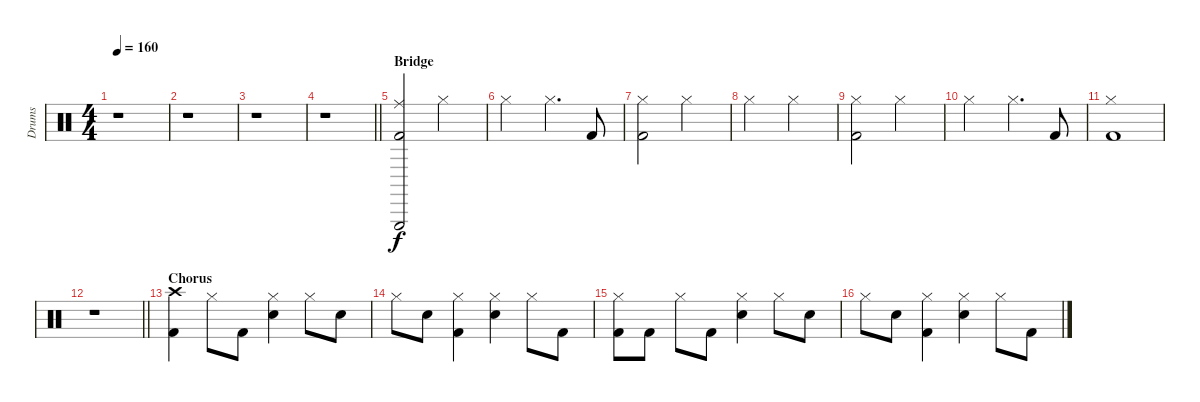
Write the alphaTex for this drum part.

\track ("Drums" "Drums") {instrument percussion}
\staff {score}
\articulation defaults
\ts (4 4)
\tempo 160
\clef neutral
\ks c
r.1{dy f} |
r.1 |
r.1 |
\barLineRight lightlight
r.1 |
\section ("" "Bridge")
("Triangle (hit)" "Ride (middle)" "Kick (hit) 2").2 "Hi-Hat (closed)".2 |
"Hi-Hat (closed)".2 "Hi-Hat (closed)".4{d} "Kick (hit) 2".8 |
("Hi-Hat (closed)" "Kick (hit) 2").2 "Hi-Hat (closed)".2 |
"Hi-Hat (closed)".2 "Hi-Hat (closed)".2 |
("Hi-Hat (closed)" "Kick (hit) 2").2 "Hi-Hat (closed)".2 |
"Hi-Hat (closed)".2 "Hi-Hat (closed)".4{d} "Kick (hit) 2".8 |
("Hi-Hat (closed)" "Kick (hit) 2").1 |
\barLineRight lightlight
r.1 |
\section ("" "Chorus")
("Crash high (hit)" "Kick (hit) 2").4 "Hi-Hat (closed)".8 "Kick (hit) 2".8 ("Hi-Hat (closed)" "Snare (hit) 2").4 "Hi-Hat (closed)".8 "Snare (hit) 2".8 |
"Hi-Hat (closed)".8 "Snare (hit) 2".8 ("Hi-Hat (closed)" "Kick (hit) 2").4 ("Hi-Hat (closed)" "Snare (hit) 2").4 "Hi-Hat (closed)".8 "Kick (hit) 2".8 |
("Hi-Hat (closed)" "Kick (hit) 2").8 "Kick (hit) 2".8 "Hi-Hat (closed)".8 "Kick (hit) 2".8 ("Hi-Hat (closed)" "Snare (hit) 2").4 "Hi-Hat (closed)".8 "Snare (hit) 2".8 |
"Hi-Hat (closed)".8 "Snare (hit) 2".8 ("Hi-Hat (closed)" "Kick (hit) 2").4 ("Hi-Hat (closed)" "Snare (hit) 2").4 "Hi-Hat (closed)".8 "Kick (hit) 2".8
